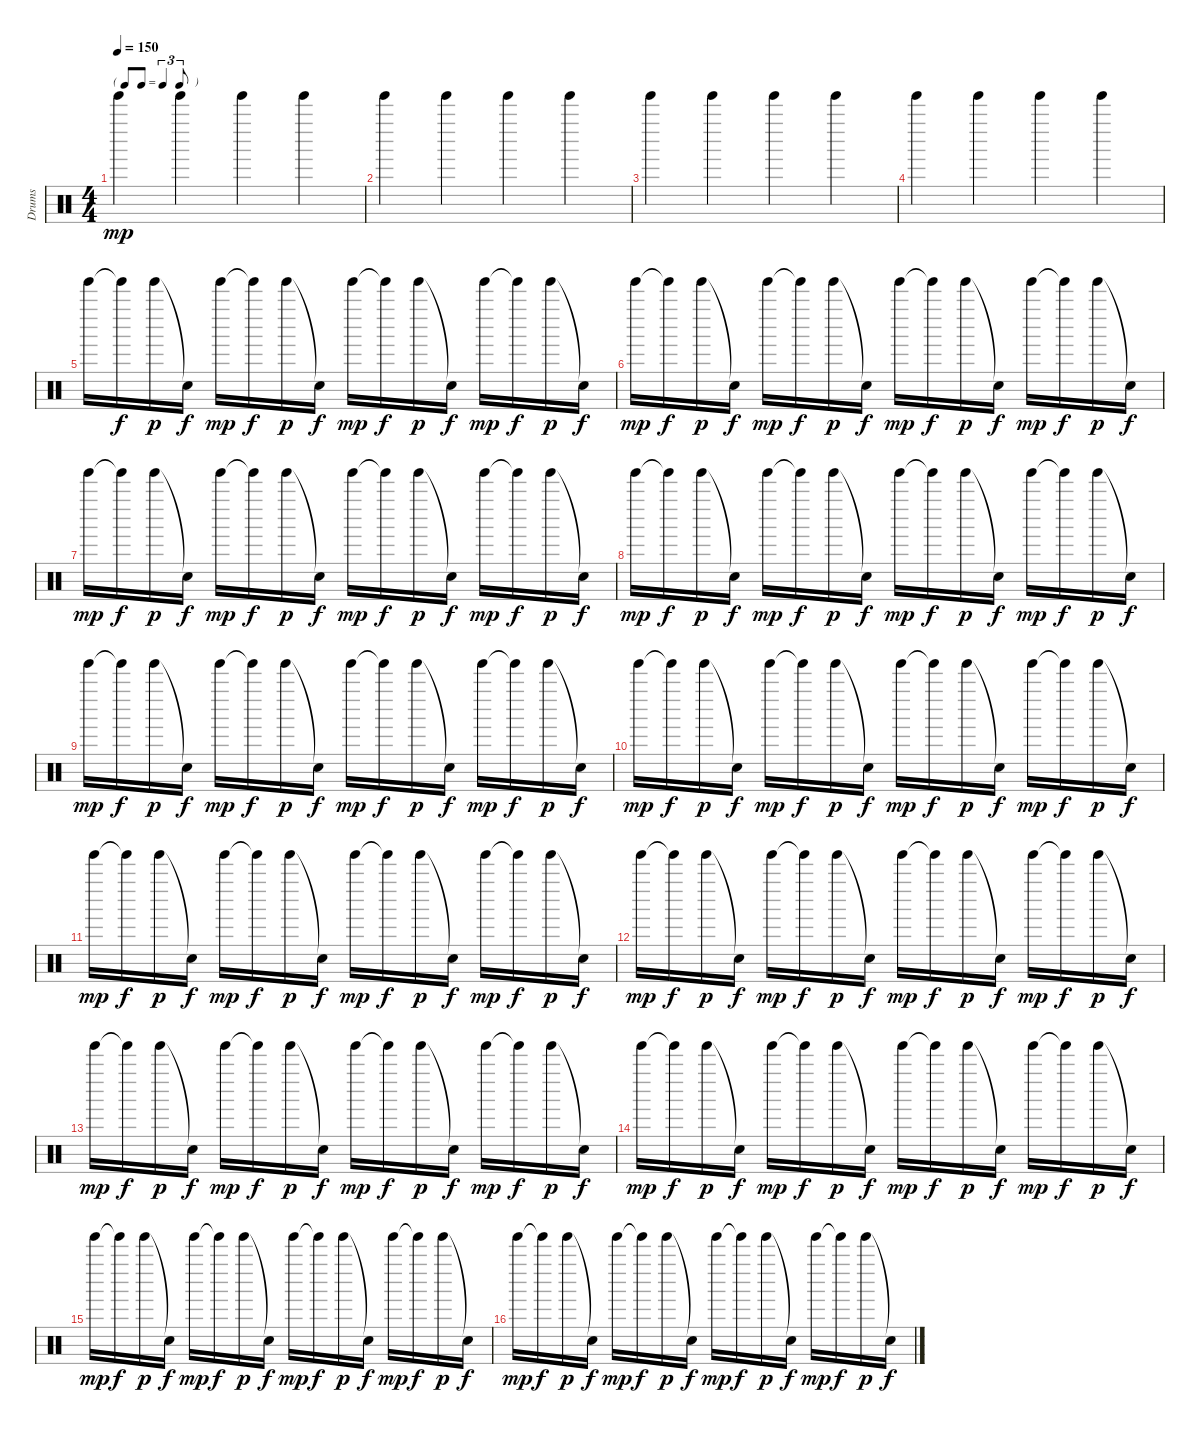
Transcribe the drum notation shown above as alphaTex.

\track ("Drums" "Drums") {instrument percussion}
\staff {score}
\articulation defaults
\ts (4 4)
\tf triplet8th
\tempo 150
\clef neutral
\ks c "Tinkle Bell (hit)".4{dy mp} "Tinkle Bell (hit)".4 "Tinkle Bell (hit)".4 "Tinkle Bell (hit)".4
|
"Tinkle Bell (hit)".4 "Tinkle Bell (hit)".4 "Tinkle Bell (hit)".4 "Tinkle Bell (hit)".4 |
"Tinkle Bell (hit)".4 "Tinkle Bell (hit)".4 "Tinkle Bell (hit)".4 "Tinkle Bell (hit)".4 |
"Tinkle Bell (hit)".4 "Tinkle Bell (hit)".4 "Tinkle Bell (hit)".4 "Tinkle Bell (hit)".4 |
"Tinkle Bell (hit)".16 "Tinkle Bell (hit)"{t}.16{dy f} "Tinkle Bell (hit)".16{dy p} "Snare (hit)"{t}.16{dy f} "Tinkle Bell (hit)".16{dy mp} "Tinkle Bell (hit)"{t}.16{dy f} "Tinkle Bell (hit)".16{dy p} "Snare (hit)"{t}.16{dy f} "Tinkle Bell (hit)".16{dy mp} "Tinkle Bell (hit)"{t}.16{dy f} "Tinkle Bell (hit)".16{dy p} "Snare (hit)"{t}.16{dy f} "Tinkle Bell (hit)".16{dy mp} "Tinkle Bell (hit)"{t}.16{dy f} "Tinkle Bell (hit)".16{dy p} "Snare (hit)"{t}.16{dy f} |
"Tinkle Bell (hit)".16{dy mp} "Tinkle Bell (hit)"{t}.16{dy f} "Tinkle Bell (hit)".16{dy p} "Snare (hit)"{t}.16{dy f} "Tinkle Bell (hit)".16{dy mp} "Tinkle Bell (hit)"{t}.16{dy f} "Tinkle Bell (hit)".16{dy p} "Snare (hit)"{t}.16{dy f} "Tinkle Bell (hit)".16{dy mp} "Tinkle Bell (hit)"{t}.16{dy f} "Tinkle Bell (hit)".16{dy p} "Snare (hit)"{t}.16{dy f} "Tinkle Bell (hit)".16{dy mp} "Tinkle Bell (hit)"{t}.16{dy f} "Tinkle Bell (hit)".16{dy p} "Snare (hit)"{t}.16{dy f} |
"Tinkle Bell (hit)".16{dy mp} "Tinkle Bell (hit)"{t}.16{dy f} "Tinkle Bell (hit)".16{dy p} "Snare (hit)"{t}.16{dy f} "Tinkle Bell (hit)".16{dy mp} "Tinkle Bell (hit)"{t}.16{dy f} "Tinkle Bell (hit)".16{dy p} "Snare (hit)"{t}.16{dy f} "Tinkle Bell (hit)".16{dy mp} "Tinkle Bell (hit)"{t}.16{dy f} "Tinkle Bell (hit)".16{dy p} "Snare (hit)"{t}.16{dy f} "Tinkle Bell (hit)".16{dy mp} "Tinkle Bell (hit)"{t}.16{dy f} "Tinkle Bell (hit)".16{dy p} "Snare (hit)"{t}.16{dy f} |
"Tinkle Bell (hit)".16{dy mp} "Tinkle Bell (hit)"{t}.16{dy f} "Tinkle Bell (hit)".16{dy p} "Snare (hit)"{t}.16{dy f} "Tinkle Bell (hit)".16{dy mp} "Tinkle Bell (hit)"{t}.16{dy f} "Tinkle Bell (hit)".16{dy p} "Snare (hit)"{t}.16{dy f} "Tinkle Bell (hit)".16{dy mp} "Tinkle Bell (hit)"{t}.16{dy f} "Tinkle Bell (hit)".16{dy p} "Snare (hit)"{t}.16{dy f} "Tinkle Bell (hit)".16{dy mp} "Tinkle Bell (hit)"{t}.16{dy f} "Tinkle Bell (hit)".16{dy p} "Snare (hit)"{t}.16{dy f} |
"Tinkle Bell (hit)".16{dy mp} "Tinkle Bell (hit)"{t}.16{dy f} "Tinkle Bell (hit)".16{dy p} "Snare (hit)"{t}.16{dy f} "Tinkle Bell (hit)".16{dy mp} "Tinkle Bell (hit)"{t}.16{dy f} "Tinkle Bell (hit)".16{dy p} "Snare (hit)"{t}.16{dy f} "Tinkle Bell (hit)".16{dy mp} "Tinkle Bell (hit)"{t}.16{dy f} "Tinkle Bell (hit)".16{dy p} "Snare (hit)"{t}.16{dy f} "Tinkle Bell (hit)".16{dy mp} "Tinkle Bell (hit)"{t}.16{dy f} "Tinkle Bell (hit)".16{dy p} "Snare (hit)"{t}.16{dy f} |
"Tinkle Bell (hit)".16{dy mp} "Tinkle Bell (hit)"{t}.16{dy f} "Tinkle Bell (hit)".16{dy p} "Snare (hit)"{t}.16{dy f} "Tinkle Bell (hit)".16{dy mp} "Tinkle Bell (hit)"{t}.16{dy f} "Tinkle Bell (hit)".16{dy p} "Snare (hit)"{t}.16{dy f} "Tinkle Bell (hit)".16{dy mp} "Tinkle Bell (hit)"{t}.16{dy f} "Tinkle Bell (hit)".16{dy p} "Snare (hit)"{t}.16{dy f} "Tinkle Bell (hit)".16{dy mp} "Tinkle Bell (hit)"{t}.16{dy f} "Tinkle Bell (hit)".16{dy p} "Snare (hit)"{t}.16{dy f} |
"Tinkle Bell (hit)".16{dy mp} "Tinkle Bell (hit)"{t}.16{dy f} "Tinkle Bell (hit)".16{dy p} "Snare (hit)"{t}.16{dy f} "Tinkle Bell (hit)".16{dy mp} "Tinkle Bell (hit)"{t}.16{dy f} "Tinkle Bell (hit)".16{dy p} "Snare (hit)"{t}.16{dy f} "Tinkle Bell (hit)".16{dy mp} "Tinkle Bell (hit)"{t}.16{dy f} "Tinkle Bell (hit)".16{dy p} "Snare (hit)"{t}.16{dy f} "Tinkle Bell (hit)".16{dy mp} "Tinkle Bell (hit)"{t}.16{dy f} "Tinkle Bell (hit)".16{dy p} "Snare (hit)"{t}.16{dy f} |
"Tinkle Bell (hit)".16{dy mp} "Tinkle Bell (hit)"{t}.16{dy f} "Tinkle Bell (hit)".16{dy p} "Snare (hit)"{t}.16{dy f} "Tinkle Bell (hit)".16{dy mp} "Tinkle Bell (hit)"{t}.16{dy f} "Tinkle Bell (hit)".16{dy p} "Snare (hit)"{t}.16{dy f} "Tinkle Bell (hit)".16{dy mp} "Tinkle Bell (hit)"{t}.16{dy f} "Tinkle Bell (hit)".16{dy p} "Snare (hit)"{t}.16{dy f} "Tinkle Bell (hit)".16{dy mp} "Tinkle Bell (hit)"{t}.16{dy f} "Tinkle Bell (hit)".16{dy p} "Snare (hit)"{t}.16{dy f} |
"Tinkle Bell (hit)".16{dy mp} "Tinkle Bell (hit)"{t}.16{dy f} "Tinkle Bell (hit)".16{dy p} "Snare (hit)"{t}.16{dy f} "Tinkle Bell (hit)".16{dy mp} "Tinkle Bell (hit)"{t}.16{dy f} "Tinkle Bell (hit)".16{dy p} "Snare (hit)"{t}.16{dy f} "Tinkle Bell (hit)".16{dy mp} "Tinkle Bell (hit)"{t}.16{dy f} "Tinkle Bell (hit)".16{dy p} "Snare (hit)"{t}.16{dy f} "Tinkle Bell (hit)".16{dy mp} "Tinkle Bell (hit)"{t}.16{dy f} "Tinkle Bell (hit)".16{dy p} "Snare (hit)"{t}.16{dy f} |
"Tinkle Bell (hit)".16{dy mp} "Tinkle Bell (hit)"{t}.16{dy f} "Tinkle Bell (hit)".16{dy p} "Snare (hit)"{t}.16{dy f} "Tinkle Bell (hit)".16{dy mp} "Tinkle Bell (hit)"{t}.16{dy f} "Tinkle Bell (hit)".16{dy p} "Snare (hit)"{t}.16{dy f} "Tinkle Bell (hit)".16{dy mp} "Tinkle Bell (hit)"{t}.16{dy f} "Tinkle Bell (hit)".16{dy p} "Snare (hit)"{t}.16{dy f} "Tinkle Bell (hit)".16{dy mp} "Tinkle Bell (hit)"{t}.16{dy f} "Tinkle Bell (hit)".16{dy p} "Snare (hit)"{t}.16{dy f} |
"Tinkle Bell (hit)".16{dy mp} "Tinkle Bell (hit)"{t}.16{dy f} "Tinkle Bell (hit)".16{dy p} "Snare (hit)"{t}.16{dy f} "Tinkle Bell (hit)".16{dy mp} "Tinkle Bell (hit)"{t}.16{dy f} "Tinkle Bell (hit)".16{dy p} "Snare (hit)"{t}.16{dy f} "Tinkle Bell (hit)".16{dy mp} "Tinkle Bell (hit)"{t}.16{dy f} "Tinkle Bell (hit)".16{dy p} "Snare (hit)"{t}.16{dy f} "Tinkle Bell (hit)".16{dy mp} "Tinkle Bell (hit)"{t}.16{dy f} "Tinkle Bell (hit)".16{dy p} "Snare (hit)"{t}.16{dy f} |
"Tinkle Bell (hit)".16{dy mp} "Tinkle Bell (hit)"{t}.16{dy f} "Tinkle Bell (hit)".16{dy p} "Snare (hit)"{t}.16{dy f} "Tinkle Bell (hit)".16{dy mp} "Tinkle Bell (hit)"{t}.16{dy f} "Tinkle Bell (hit)".16{dy p} "Snare (hit)"{t}.16{dy f} "Tinkle Bell (hit)".16{dy mp} "Tinkle Bell (hit)"{t}.16{dy f} "Tinkle Bell (hit)".16{dy p} "Snare (hit)"{t}.16{dy f} "Tinkle Bell (hit)".16{dy mp} "Tinkle Bell (hit)"{t}.16{dy f} "Tinkle Bell (hit)".16{dy p} "Snare (hit)"{t}.16{dy f}
